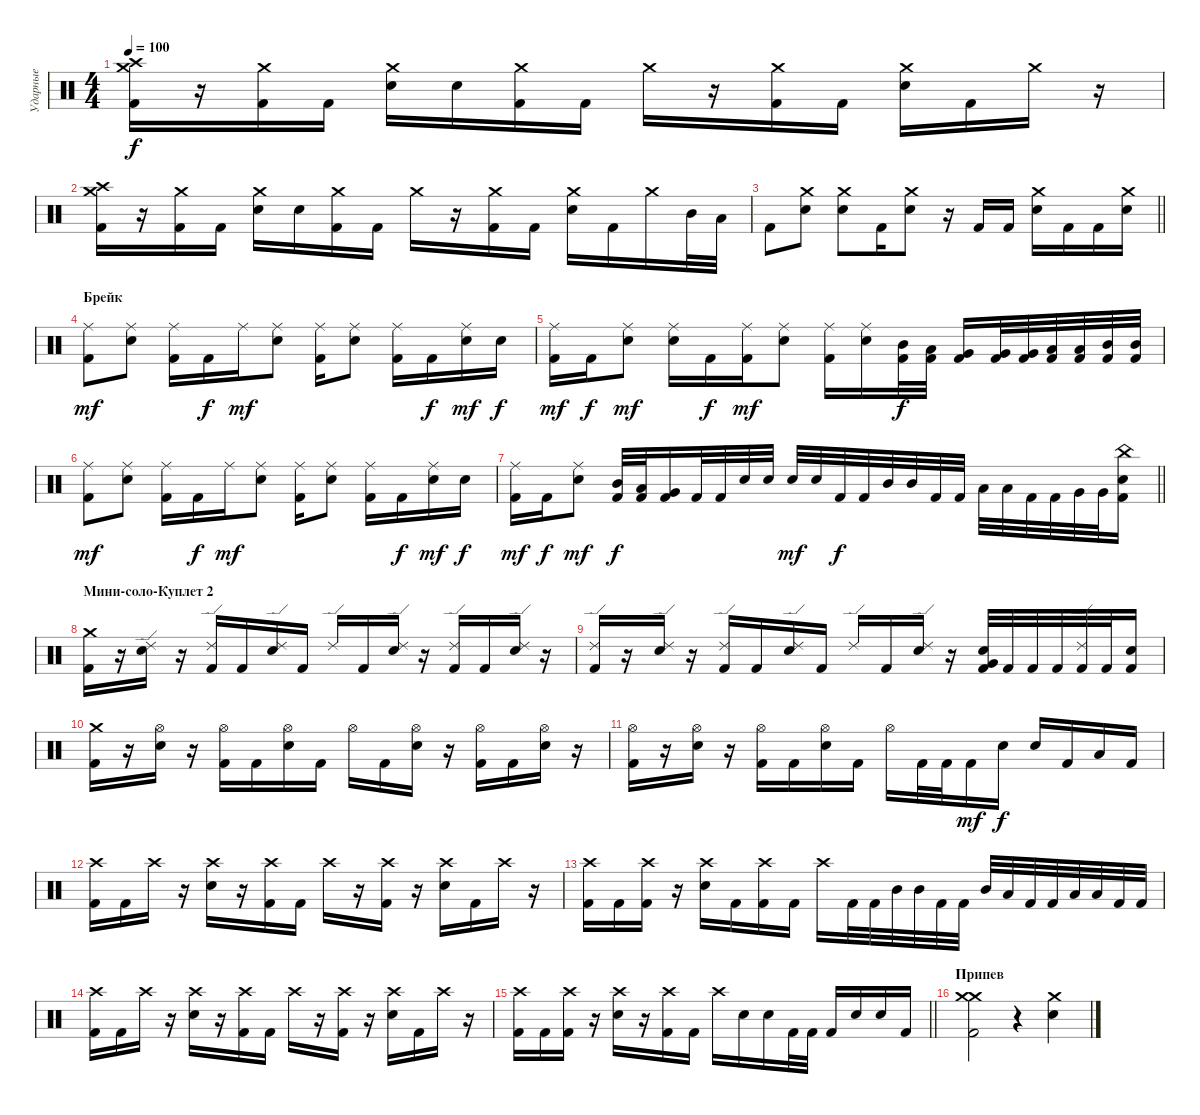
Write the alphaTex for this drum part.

\track ("Ударные" "Ударные") {instrument percussion}
\staff {score}
\articulation defaults
\ts (4 4)
\tempo 100
\clef neutral
\ks c
("Crash high (hit)" "Crash medium (hit)" "Kick (hit) 2").16{dy f} r.16 ("Crash medium (hit)" "Kick (hit) 2").16 "Kick (hit) 2".16 ("Crash medium (hit)" "Electric Snare (hit)").16 "Electric Snare (hit)".16 ("Crash medium (hit)" "Kick (hit) 2").16 "Kick (hit) 2".16 "Crash medium (hit)".16 r.16 ("Crash medium (hit)" "Kick (hit) 2").16 "Kick (hit) 2".16 ("Crash medium (hit)" "Electric Snare (hit)").16 "Kick (hit) 2".16 "Crash medium (hit)".16 r.16 |
("Crash high (hit)" "Crash medium (hit)" "Kick (hit) 2").16 r.16 ("Crash medium (hit)" "Kick (hit) 2").16 "Kick (hit) 2".16 ("Crash medium (hit)" "Electric Snare (hit)").16 "Electric Snare (hit)".16 ("Crash medium (hit)" "Kick (hit) 2").16 "Kick (hit) 2".16 "Crash medium (hit)".16 r.16 ("Crash medium (hit)" "Kick (hit) 2").16 "Kick (hit) 2".16 ("Crash medium (hit)" "Electric Snare (hit)").16 "Kick (hit) 2".16 "Crash medium (hit)".16 "Mid Tom (hit)".32 "Low Tom (hit)".32 |
\barLineRight lightlight "Kick (hit) 2".8
("Crash medium (hit)" "Electric Snare (hit)").8 ("Crash medium (hit)" "Electric Snare (hit)").8 "Kick (hit) 2".16 ("Crash medium (hit)" "Electric Snare (hit)").8 r.16 "Kick (hit) 2".16 "Kick (hit) 2".16 ("Crash medium (hit)" "Electric Snare (hit)").16 "Kick (hit) 2".16 "Kick (hit) 2".16 ("Crash medium (hit)" "Electric Snare (hit)").16 |
\section ("" "Брейк")
("Ride (middle)" "Kick (hit) 2").8{dy mf} ("Ride (middle)" "Electric Snare (hit)").8 ("Ride (middle)" "Kick (hit) 2").16 "Kick (hit) 2".16{dy f} "Ride (middle)".16{dy mf} ("Ride (middle)" "Electric Snare (hit)").8 ("Ride (middle)" "Kick (hit) 2").16 ("Ride (middle)" "Electric Snare (hit)").8 ("Ride (middle)" "Kick (hit) 2").16 "Kick (hit) 2".16{dy f} ("Ride (middle)" "Electric Snare (hit)").16{dy mf} "Electric Snare (hit)".16{dy f} |
("Ride (middle)" "Kick (hit) 2").16{dy mf} "Kick (hit) 2".16{dy f} ("Ride (middle)" "Electric Snare (hit)").8{dy mf} ("Ride (middle)" "Electric Snare (hit)").16 "Kick (hit) 2".16{dy f} ("Ride (middle)" "Kick (hit) 2").16{dy mf} ("Ride (middle)" "Electric Snare (hit)").8 ("Ride (middle)" "Kick (hit) 2").16 ("Ride (middle)" "Electric Snare (hit)").16 ("Mid Tom (hit)" "Kick (hit) 2").32{dy f} ("Low Tom (hit)" "Kick (hit) 2").32 ("Very Low Tom (hit)" "Kick (hit) 2").16 ("Very Low Tom (hit)" "Kick (hit) 2").32 ("Very Low Tom (hit)" "Kick (hit) 2").32 ("Low Tom (hit)" "Kick (hit) 2").32 ("Low Tom (hit)" "Kick (hit) 2").32 ("Mid Tom (hit)" "Kick (hit) 2").32 ("Mid Tom (hit)" "Kick (hit) 2").32 |
("Ride (middle)" "Kick (hit) 2").8{dy mf} ("Ride (middle)" "Electric Snare (hit)").8 ("Ride (middle)" "Kick (hit) 2").16 "Kick (hit) 2".16{dy f} "Ride (middle)".16{dy mf} ("Ride (middle)" "Electric Snare (hit)").8 ("Ride (middle)" "Kick (hit) 2").16 ("Ride (middle)" "Electric Snare (hit)").8 ("Ride (middle)" "Kick (hit) 2").16 "Kick (hit) 2".16{dy f} ("Ride (middle)" "Electric Snare (hit)").16{dy mf} "Electric Snare (hit)".16{dy f} |
\barLineRight lightlight
("Ride (middle)" "Kick (hit) 2").16{dy mf} "Kick (hit) 2".16{dy f} ("Ride (middle)" "Electric Snare (hit)").8{dy mf} ("Mid Tom (hit)" "Kick (hit) 2").32{dy f} ("Low Tom (hit)" "Kick (hit) 2").32 ("Very Low Tom (hit)" "Kick (hit) 2").16 "Kick (hit) 2".32 "Kick (hit) 2".32 "Electric Snare (hit)".32 "Electric Snare (hit)".32 "Electric Snare (hit)".32{dy mf} "Electric Snare (hit)".32 "Kick (hit) 2".32{dy f} "Kick (hit) 2".32 "Mid Tom (hit)".32 "Mid Tom (hit)".32 "Kick (hit) 2".32 "Kick (hit) 2".32 "Low Tom (hit)".32 "Low Tom (hit)".32 "Kick (hit) 2".32 "Kick (hit) 2".32 "Very Low Tom (hit)".32 "Very Low Tom (hit)".32 ("China (hit)" "Electric Snare (hit)" "Kick (hit) 2").16 |
\section ("" "Мини-соло-Куплет 2 ")
("Crash medium (hit)" "Kick (hit) 2").16 r.16 ("Ride (edge) 2" "Electric Snare (hit)").16 r.16 ("Ride (edge) 2" "Kick (hit) 2").16 "Kick (hit) 2".16 ("Ride (edge) 2" "Electric Snare (hit)").16 "Kick (hit) 2".16 "Ride (edge) 2".16 "Kick (hit) 2".16 ("Ride (edge) 2" "Electric Snare (hit)").16 r.16 ("Ride (edge) 2" "Kick (hit) 2").16 "Kick (hit) 2".16 ("Ride (edge) 2" "Electric Snare (hit)").16 r.16 |
("Ride (edge) 2" "Kick (hit) 2").16 r.16 ("Ride (edge) 2" "Electric Snare (hit)").16 r.16 ("Ride (edge) 2" "Kick (hit) 2").16 "Kick (hit) 2".16 ("Ride (edge) 2" "Electric Snare (hit)").16 "Kick (hit) 2".16 "Ride (edge) 2".16 "Kick (hit) 2".16 ("Ride (edge) 2" "Electric Snare (hit)").16 r.16 ("Very Low Tom (hit)" "Electric Snare (hit)" "Kick (hit) 2").32 "Kick (hit) 2".32 "Kick (hit) 2".32 "Kick (hit) 2".32 ("Ride (edge) 2" "Kick (hit) 2").32 "Kick (hit) 2".32 ("Electric Snare (hit)" "Kick (hit) 2").16 |
("Crash medium (hit)" "Kick (hit) 2").16 r.16 ("Hi-Hat (open)" "Electric Snare (hit)").16 r.16 ("Hi-Hat (open)" "Kick (hit) 2").16 "Kick (hit) 2".16 ("Hi-Hat (open)" "Electric Snare (hit)").16 "Kick (hit) 2".16 "Hi-Hat (open)".16 "Kick (hit) 2".16 ("Hi-Hat (open)" "Electric Snare (hit)").16 r.16 ("Hi-Hat (open)" "Kick (hit) 2").16 "Kick (hit) 2".16 ("Hi-Hat (open)" "Electric Snare (hit)").16 r.16 |
("Hi-Hat (open)" "Kick (hit) 2").16 r.16 ("Hi-Hat (open)" "Electric Snare (hit)").16 r.16 ("Hi-Hat (open)" "Kick (hit) 2").16 "Kick (hit) 2".16 ("Hi-Hat (open)" "Electric Snare (hit)").16 "Kick (hit) 2".16 "Hi-Hat (open)".16 "Kick (hit) 2".32 "Kick (hit) 2".32 "Kick (hit) 2".16{dy mf} "Electric Snare (hit)".16{dy f} "Electric Snare (hit)".16 "Kick (hit) 2".16 "Low Tom (hit)".16 "Kick (hit) 2".16 |
("Crash high (hit)" "Kick (hit) 2").16 "Kick (hit) 2".16 "Crash high (hit)".16 r.16 ("Crash high (hit)" "Electric Snare (hit)").16 r.16 ("Crash high (hit)" "Kick (hit) 2").16 "Kick (hit) 2".16 "Crash high (hit)".16 r.16 ("Crash high (hit)" "Kick (hit) 2").16 r.16 ("Crash high (hit)" "Electric Snare (hit)").16 "Kick (hit) 2".16 "Crash high (hit)".16 r.16 |
("Crash high (hit)" "Kick (hit) 2").16 "Kick (hit) 2".16 ("Crash high (hit)" "Kick (hit) 2").16 r.16 ("Crash high (hit)" "Electric Snare (hit)").16 "Kick (hit) 2".16 ("Crash high (hit)" "Kick (hit) 2").16 "Kick (hit) 2".16 "Crash high (hit)".16 "Kick (hit) 2".32 "Kick (hit) 2".32 "Mid Tom (hit)".32 "Mid Tom (hit)".32 "Kick (hit) 2".32 "Kick (hit) 2".32 "Mid Tom (hit)".32 "Low Tom (hit)".32 "Kick (hit) 2".32 "Kick (hit) 2".32 "Low Tom (hit)".32 "Low Tom (hit)".32 "Kick (hit) 2".32 "Kick (hit) 2".32 |
("Crash high (hit)" "Kick (hit) 2").16 "Kick (hit) 2".16 "Crash high (hit)".16 r.16 ("Crash high (hit)" "Electric Snare (hit)").16 r.16 ("Crash high (hit)" "Kick (hit) 2").16 "Kick (hit) 2".16 "Crash high (hit)".16 r.16 ("Crash high (hit)" "Kick (hit) 2").16 r.16 ("Crash high (hit)" "Electric Snare (hit)").16 "Kick (hit) 2".16 "Crash high (hit)".16 r.16 |
\barLineRight lightlight
("Crash high (hit)" "Kick (hit) 2").16 "Kick (hit) 2".16 ("Crash high (hit)" "Kick (hit) 2").16 r.16 ("Crash high (hit)" "Electric Snare (hit)").16 r.16 ("Crash high (hit)" "Kick (hit) 2").16 "Kick (hit) 2".16 "Crash high (hit)".16 "Electric Snare (hit)".16 "Electric Snare (hit)".16 "Kick (hit) 2".32 "Kick (hit) 2".32 "Kick (hit) 2".16 "Electric Snare (hit)".16 "Electric Snare (hit)".16 "Kick (hit) 2".16 |
\section ("" "Припев")
("Crash medium (hit)" "Crash medium (hit)" "Kick (hit) 2").2 r.4 ("Crash medium (hit)" "Electric Snare (hit)").4
